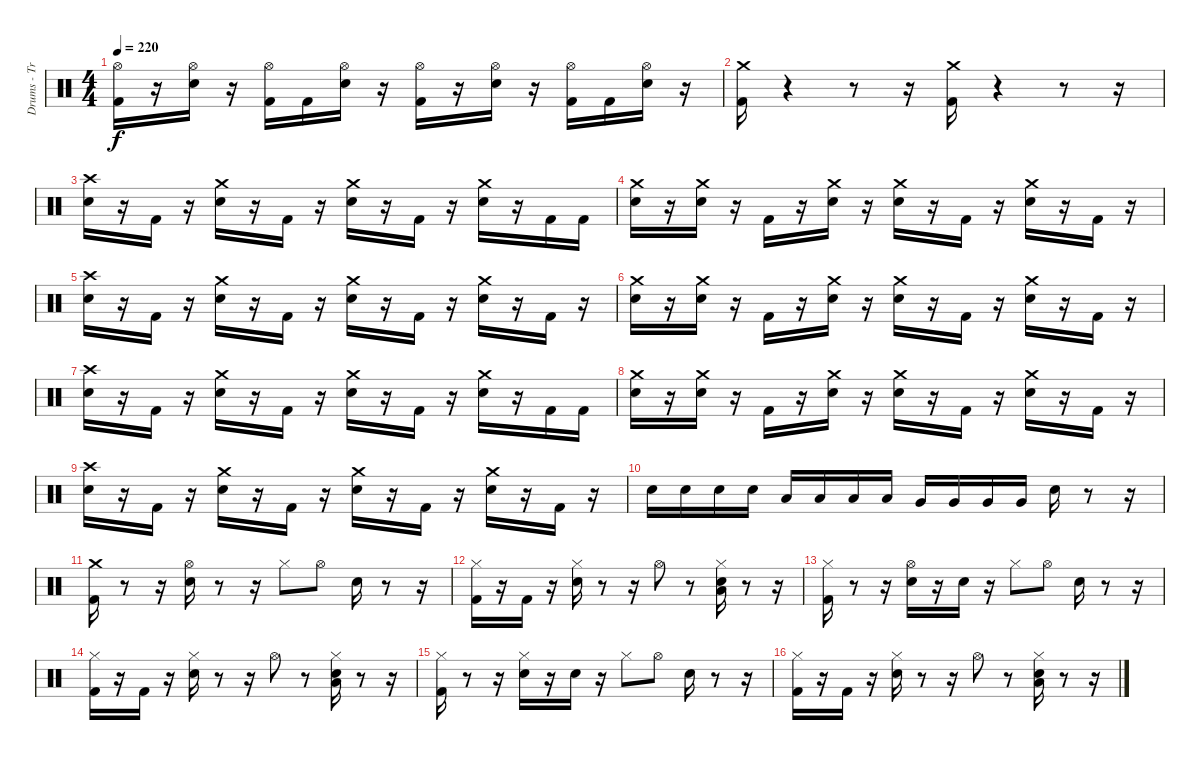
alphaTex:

\track ("Drums - Travis Barker" "Drums - Tr") {instrument percussion}
\staff {score}
\articulation defaults
\ts (4 4)
\tempo 220
\clef neutral
\ks c
("Kick (hit) 2" "Hi-Hat (open)").16{dy f} r.16 ("Electric Snare (hit)" "Hi-Hat (open)").16 r.16 ("Kick (hit) 2" "Hi-Hat (open)").16 "Kick (hit) 2".16 ("Electric Snare (hit)" "Hi-Hat (open)").16 r.16 ("Kick (hit) 2" "Hi-Hat (open)").16 r.16 ("Electric Snare (hit)" "Hi-Hat (open)").16 r.16 ("Kick (hit) 2" "Hi-Hat (open)").16 "Kick (hit) 2".16 ("Electric Snare (hit)" "Hi-Hat (open)").16 r.16 |
("Kick (hit) 2" "Crash medium (hit)").16 r.4 r.8 r.16 ("Kick (hit) 2" "Crash medium (hit)").16 r.4 r.8 r.16 |
("Electric Snare (hit)" "Crash high (hit)").16 r.16 "Kick (hit) 2".16 r.16 ("Electric Snare (hit)" "Crash medium (hit)").16 r.16 "Kick (hit) 2".16 r.16 ("Electric Snare (hit)" "Crash medium (hit)").16 r.16 "Kick (hit) 2".16 r.16 ("Electric Snare (hit)" "Crash medium (hit)").16 r.16 "Kick (hit) 2".16 "Kick (hit) 2".16 |
("Electric Snare (hit)" "Crash medium (hit)").16 r.16 ("Electric Snare (hit)" "Crash medium (hit)").16 r.16 "Kick (hit) 2".16 r.16 ("Electric Snare (hit)" "Crash medium (hit)").16 r.16 ("Electric Snare (hit)" "Crash medium (hit)").16 r.16 "Kick (hit) 2".16 r.16 ("Electric Snare (hit)" "Crash medium (hit)").16 r.16 "Kick (hit) 2".16 r.16 |
("Electric Snare (hit)" "Crash high (hit)").16 r.16 "Kick (hit) 2".16 r.16 ("Electric Snare (hit)" "Crash medium (hit)").16 r.16 "Kick (hit) 2".16 r.16 ("Electric Snare (hit)" "Crash medium (hit)").16 r.16 "Kick (hit) 2".16 r.16 ("Electric Snare (hit)" "Crash medium (hit)").16 r.16 "Kick (hit) 2".16 r.16 |
("Electric Snare (hit)" "Crash medium (hit)").16 r.16 ("Electric Snare (hit)" "Crash medium (hit)").16 r.16 "Kick (hit) 2".16 r.16 ("Electric Snare (hit)" "Crash medium (hit)").16 r.16 ("Electric Snare (hit)" "Crash medium (hit)").16 r.16 "Kick (hit) 2".16 r.16 ("Electric Snare (hit)" "Crash medium (hit)").16 r.16 "Kick (hit) 2".16 r.16 |
("Electric Snare (hit)" "Crash high (hit)").16 r.16 "Kick (hit) 2".16 r.16 ("Electric Snare (hit)" "Crash medium (hit)").16 r.16 "Kick (hit) 2".16 r.16 ("Electric Snare (hit)" "Crash medium (hit)").16 r.16 "Kick (hit) 2".16 r.16 ("Electric Snare (hit)" "Crash medium (hit)").16 r.16 "Kick (hit) 2".16 "Kick (hit) 2".16 |
("Electric Snare (hit)" "Crash medium (hit)").16 r.16 ("Electric Snare (hit)" "Crash medium (hit)").16 r.16 "Kick (hit) 2".16 r.16 ("Electric Snare (hit)" "Crash medium (hit)").16 r.16 ("Electric Snare (hit)" "Crash medium (hit)").16 r.16 "Kick (hit) 2".16 r.16 ("Electric Snare (hit)" "Crash medium (hit)").16 r.16 "Kick (hit) 2".16 r.16 |
("Electric Snare (hit)" "Crash high (hit)").16 r.16 "Kick (hit) 2".16 r.16 ("Electric Snare (hit)" "Crash medium (hit)").16 r.16 "Kick (hit) 2".16 r.16 ("Electric Snare (hit)" "Crash medium (hit)").16 r.16 "Kick (hit) 2".16 r.16 ("Electric Snare (hit)" "Crash medium (hit)").16 r.16 "Kick (hit) 2".16 r.16 |
"Electric Snare (hit)".16 "Electric Snare (hit)".16 "Electric Snare (hit)".16 "Electric Snare (hit)".16 "Low Tom (hit)".16 "Low Tom (hit)".16 "Low Tom (hit)".16 "Low Tom (hit)".16 "Very Low Tom (hit)".16 "Very Low Tom (hit)".16 "Very Low Tom (hit)".16 "Very Low Tom (hit)".16 "Electric Snare (hit)".16 r.8 r.16 |
("Kick (hit) 2" "Crash medium (hit)").16 r.8 r.16 ("Electric Snare (hit)" "Hi-Hat (open)").16 r.8 r.16 "Hi-Hat (closed)".8 "Hi-Hat (open)".8 "Electric Snare (hit)".16 r.8 r.16 |
("Hi-Hat (closed)" "Kick (hit) 2").16 r.16 "Kick (hit) 2".16 r.16 ("Electric Snare (hit)" "Hi-Hat (closed)").16 r.8 r.16 "Hi-Hat (open)".8 r.8 ("Electric Snare (hit)" "Low Tom (hit)" "Hi-Hat (closed)").16 r.8 r.16 |
("Kick (hit) 2" "Hi-Hat (closed)").16 r.8 r.16 ("Electric Snare (hit)" "Hi-Hat (open)").16 r.16 "Electric Snare (hit)".16 r.16 "Hi-Hat (closed)".8 "Hi-Hat (open)".8 "Electric Snare (hit)".16 r.8 r.16 |
("Hi-Hat (closed)" "Kick (hit) 2").16 r.16 "Kick (hit) 2".16 r.16 ("Electric Snare (hit)" "Hi-Hat (closed)").16 r.8 r.16 "Hi-Hat (open)".8 r.8 ("Electric Snare (hit)" "Low Tom (hit)" "Hi-Hat (closed)").16 r.8 r.16 |
("Kick (hit) 2" "Hi-Hat (closed)").16 r.8 r.16 ("Electric Snare (hit)" "Hi-Hat (closed)").16 r.16 "Electric Snare (hit)".16 r.16 "Hi-Hat (closed)".8 "Hi-Hat (open)".8 "Electric Snare (hit)".16 r.8 r.16 |
("Hi-Hat (closed)" "Kick (hit) 2").16 r.16 "Kick (hit) 2".16 r.16 ("Electric Snare (hit)" "Hi-Hat (closed)").16 r.8 r.16 "Hi-Hat (open)".8 r.8 ("Electric Snare (hit)" "Low Tom (hit)" "Hi-Hat (closed)").16 r.8 r.16
